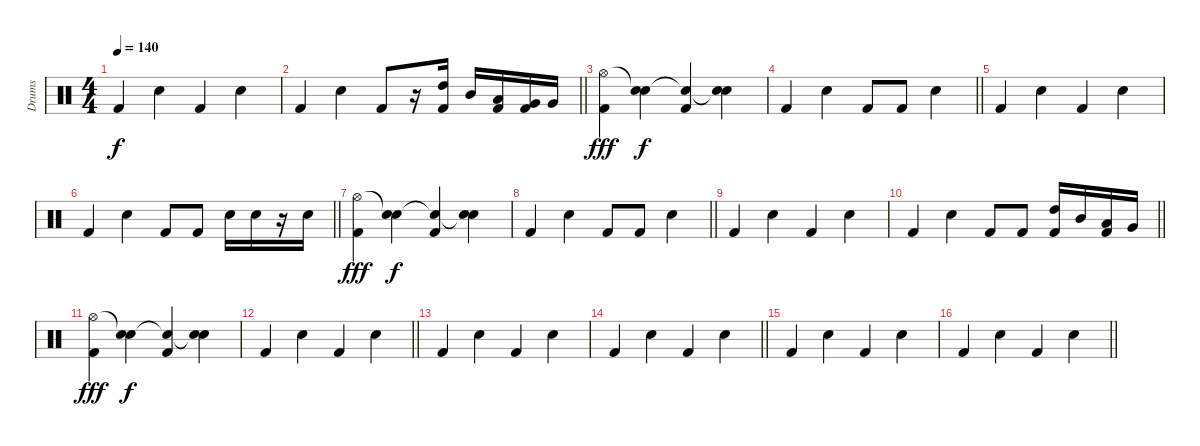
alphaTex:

\track ("Drums" "Drums") {instrument percussion}
\staff {score}
\articulation defaults
\ts (4 4)
\tempo 140
\clef neutral
\ks c "Kick (hit) 2".4{dy f} "Snare (hit) 2".4 "Kick (hit) 2".4 "Snare (hit) 2".4
|
\barLineRight lightlight "Kick (hit) 2".4 "Snare (hit) 2".4 "Kick (hit) 2".8
r.16 ("High Tom (hit)" "Kick (hit) 2").16 "Mid Tom (hit)".16 ("Low Tom (hit)" "Kick (hit) 2").16 ("Very Low Tom (hit)" "Kick (hit) 2").16 "Very Low Tom (hit)".16 |
("Hi-Hat (open)" "Kick (hit) 2").4{dy fff} ("Snare (hit)"{t} "Snare (hit) 2").4{dy f} ("Snare (hit)"{t} "Kick (hit) 2").4 ("Snare (hit)"{t} "Snare (hit) 2").4 |
\barLineRight lightlight "Kick (hit) 2".4 "Snare (hit) 2".4 "Kick (hit) 2".8 "Kick (hit) 2".8 "Snare (hit) 2".4
|
"Kick (hit) 2".4 "Snare (hit) 2".4 "Kick (hit) 2".4 "Snare (hit) 2".4 |
\barLineRight lightlight "Kick (hit) 2".4 "Snare (hit) 2".4 "Kick (hit) 2".8 "Kick (hit) 2".8 "Snare (hit) 2".16 "Snare (hit) 2".16
r.16 "Snare (hit) 2".16 |
("Hi-Hat (open)" "Kick (hit) 2").4{dy fff} ("Snare (hit)"{t} "Snare (hit) 2").4{dy f} ("Snare (hit)"{t} "Kick (hit) 2").4 ("Snare (hit)"{t} "Snare (hit) 2").4 |
\barLineRight lightlight "Kick (hit) 2".4 "Snare (hit) 2".4 "Kick (hit) 2".8 "Kick (hit) 2".8 "Snare (hit) 2".4
|
"Kick (hit) 2".4 "Snare (hit) 2".4 "Kick (hit) 2".4 "Snare (hit) 2".4 |
\barLineRight lightlight "Kick (hit) 2".4 "Snare (hit) 2".4 "Kick (hit) 2".8 "Kick (hit) 2".8
("High Tom (hit)" "Kick (hit) 2").16 "Mid Tom (hit)".16 ("Low Tom (hit)" "Kick (hit) 2").16 "Very Low Tom (hit)".16 |
("Hi-Hat (open)" "Kick (hit) 2").4{dy fff} ("Snare (hit)"{t} "Snare (hit) 2").4{dy f} ("Snare (hit)"{t} "Kick (hit) 2").4 ("Snare (hit)"{t} "Snare (hit) 2").4 |
\barLineRight lightlight "Kick (hit) 2".4 "Snare (hit) 2".4 "Kick (hit) 2".4 "Snare (hit) 2".4
|
"Kick (hit) 2".4 "Snare (hit) 2".4 "Kick (hit) 2".4 "Snare (hit) 2".4 |
\barLineRight lightlight "Kick (hit) 2".4 "Snare (hit) 2".4 "Kick (hit) 2".4 "Snare (hit) 2".4
|
"Kick (hit) 2".4 "Snare (hit) 2".4 "Kick (hit) 2".4 "Snare (hit) 2".4 |
\barLineRight lightlight "Kick (hit) 2".4 "Snare (hit) 2".4 "Kick (hit) 2".4 "Snare (hit) 2".4
